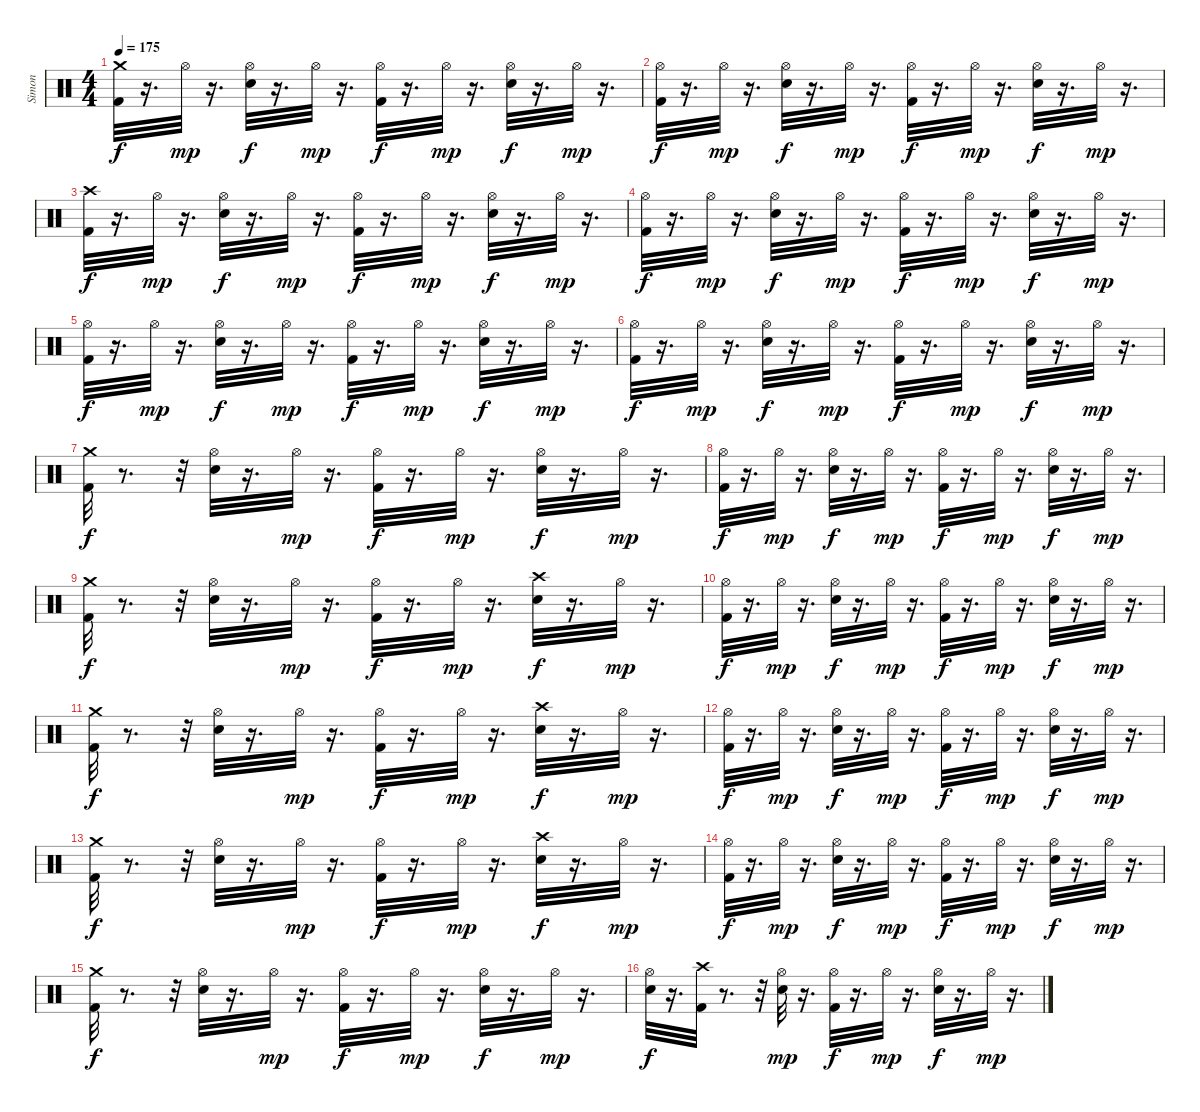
\track ("Simon" "Simon") {instrument percussion}
\staff {score}
\articulation defaults
\ts (4 4)
\tempo 175
\clef neutral
\ks c
("Crash medium (hit)" "Kick (hit) 2").32{dy f} r.16{d} "Hi-Hat (open)".32{dy mp} r.16{d} ("Hi-Hat (open)" "Electric Snare (hit)").32{dy f} r.16{d} "Hi-Hat (open)".32{dy mp} r.16{d} ("Hi-Hat (open)" "Kick (hit) 2").32{dy f} r.16{d} "Hi-Hat (open)".32{dy mp} r.16{d} ("Hi-Hat (open)" "Electric Snare (hit)").32{dy f} r.16{d} "Hi-Hat (open)".32{dy mp} r.16{d} |
("Hi-Hat (open)" "Kick (hit) 2").32{dy f} r.16{d} "Hi-Hat (open)".32{dy mp} r.16{d} ("Hi-Hat (open)" "Electric Snare (hit)").32{dy f} r.16{d} "Hi-Hat (open)".32{dy mp} r.16{d} ("Hi-Hat (open)" "Kick (hit) 2").32{dy f} r.16{d} "Hi-Hat (open)".32{dy mp} r.16{d} ("Hi-Hat (open)" "Electric Snare (hit)").32{dy f} r.16{d} "Hi-Hat (open)".32{dy mp} r.16{d} |
("Crash high (hit)" "Kick (hit) 2").32{dy f} r.16{d} "Hi-Hat (open)".32{dy mp} r.16{d} ("Hi-Hat (open)" "Electric Snare (hit)").32{dy f} r.16{d} "Hi-Hat (open)".32{dy mp} r.16{d} ("Hi-Hat (open)" "Kick (hit) 2").32{dy f} r.16{d} "Hi-Hat (open)".32{dy mp} r.16{d} ("Hi-Hat (open)" "Electric Snare (hit)").32{dy f} r.16{d} "Hi-Hat (open)".32{dy mp} r.16{d} |
("Hi-Hat (open)" "Kick (hit) 2").32{dy f} r.16{d} "Hi-Hat (open)".32{dy mp} r.16{d} ("Hi-Hat (open)" "Electric Snare (hit)").32{dy f} r.16{d} "Hi-Hat (open)".32{dy mp} r.16{d} ("Hi-Hat (open)" "Kick (hit) 2").32{dy f} r.16{d} "Hi-Hat (open)".32{dy mp} r.16{d} ("Hi-Hat (open)" "Electric Snare (hit)").32{dy f} r.16{d} "Hi-Hat (open)".32{dy mp} r.16{d} |
("Hi-Hat (open)" "Kick (hit) 2").32{dy f} r.16{d} "Hi-Hat (open)".32{dy mp} r.16{d} ("Hi-Hat (open)" "Electric Snare (hit)").32{dy f} r.16{d} "Hi-Hat (open)".32{dy mp} r.16{d} ("Hi-Hat (open)" "Kick (hit) 2").32{dy f} r.16{d} "Hi-Hat (open)".32{dy mp} r.16{d} ("Hi-Hat (open)" "Electric Snare (hit)").32{dy f} r.16{d} "Hi-Hat (open)".32{dy mp} r.16{d} |
("Hi-Hat (open)" "Kick (hit) 2").32{dy f} r.16{d} "Hi-Hat (open)".32{dy mp} r.16{d} ("Hi-Hat (open)" "Electric Snare (hit)").32{dy f} r.16{d} "Hi-Hat (open)".32{dy mp} r.16{d} ("Hi-Hat (open)" "Kick (hit) 2").32{dy f} r.16{d} "Hi-Hat (open)".32{dy mp} r.16{d} ("Hi-Hat (open)" "Electric Snare (hit)").32{dy f} r.16{d} "Hi-Hat (open)".32{dy mp} r.16{d} |
("Crash medium (hit)" "Kick (hit) 2").32{dy f} r.8{d} r.32 ("Hi-Hat (open)" "Electric Snare (hit)").32 r.16{d} "Hi-Hat (open)".32{dy mp} r.16{d} ("Hi-Hat (open)" "Kick (hit) 2").32{dy f} r.16{d} "Hi-Hat (open)".32{dy mp} r.16{d} ("Hi-Hat (open)" "Electric Snare (hit)").32{dy f} r.16{d} "Hi-Hat (open)".32{dy mp} r.16{d} |
("Hi-Hat (open)" "Kick (hit) 2").32{dy f} r.16{d} "Hi-Hat (open)".32{dy mp} r.16{d} ("Hi-Hat (open)" "Electric Snare (hit)").32{dy f} r.16{d} "Hi-Hat (open)".32{dy mp} r.16{d} ("Hi-Hat (open)" "Kick (hit) 2").32{dy f} r.16{d} "Hi-Hat (open)".32{dy mp} r.16{d} ("Hi-Hat (open)" "Electric Snare (hit)").32{dy f} r.16{d} "Hi-Hat (open)".32{dy mp} r.16{d} |
("Crash medium (hit)" "Kick (hit) 2").32{dy f} r.8{d} r.32 ("Hi-Hat (open)" "Electric Snare (hit)").32 r.16{d} "Hi-Hat (open)".32{dy mp} r.16{d} ("Hi-Hat (open)" "Kick (hit) 2").32{dy f} r.16{d} "Hi-Hat (open)".32{dy mp} r.16{d} ("Crash high (hit)" "Electric Snare (hit)").32{dy f} r.16{d} "Hi-Hat (open)".32{dy mp} r.16{d} |
("Hi-Hat (open)" "Kick (hit) 2").32{dy f} r.16{d} "Hi-Hat (open)".32{dy mp} r.16{d} ("Hi-Hat (open)" "Electric Snare (hit)").32{dy f} r.16{d} "Hi-Hat (open)".32{dy mp} r.16{d} ("Hi-Hat (open)" "Kick (hit) 2").32{dy f} r.16{d} "Hi-Hat (open)".32{dy mp} r.16{d} ("Hi-Hat (open)" "Electric Snare (hit)").32{dy f} r.16{d} "Hi-Hat (open)".32{dy mp} r.16{d} |
("Crash medium (hit)" "Kick (hit) 2").32{dy f} r.8{d} r.32 ("Hi-Hat (open)" "Electric Snare (hit)").32 r.16{d} "Hi-Hat (open)".32{dy mp} r.16{d} ("Hi-Hat (open)" "Kick (hit) 2").32{dy f} r.16{d} "Hi-Hat (open)".32{dy mp} r.16{d} ("Crash high (hit)" "Electric Snare (hit)").32{dy f} r.16{d} "Hi-Hat (open)".32{dy mp} r.16{d} |
("Hi-Hat (open)" "Kick (hit) 2").32{dy f} r.16{d} "Hi-Hat (open)".32{dy mp} r.16{d} ("Hi-Hat (open)" "Electric Snare (hit)").32{dy f} r.16{d} "Hi-Hat (open)".32{dy mp} r.16{d} ("Hi-Hat (open)" "Kick (hit) 2").32{dy f} r.16{d} "Hi-Hat (open)".32{dy mp} r.16{d} ("Hi-Hat (open)" "Electric Snare (hit)").32{dy f} r.16{d} "Hi-Hat (open)".32{dy mp} r.16{d} |
("Crash medium (hit)" "Kick (hit) 2").32{dy f} r.8{d} r.32 ("Hi-Hat (open)" "Electric Snare (hit)").32 r.16{d} "Hi-Hat (open)".32{dy mp} r.16{d} ("Hi-Hat (open)" "Kick (hit) 2").32{dy f} r.16{d} "Hi-Hat (open)".32{dy mp} r.16{d} ("Crash high (hit)" "Electric Snare (hit)").32{dy f} r.16{d} "Hi-Hat (open)".32{dy mp} r.16{d} |
("Hi-Hat (open)" "Kick (hit) 2").32{dy f} r.16{d} "Hi-Hat (open)".32{dy mp} r.16{d} ("Hi-Hat (open)" "Electric Snare (hit)").32{dy f} r.16{d} "Hi-Hat (open)".32{dy mp} r.16{d} ("Hi-Hat (open)" "Kick (hit) 2").32{dy f} r.16{d} "Hi-Hat (open)".32{dy mp} r.16{d} ("Hi-Hat (open)" "Electric Snare (hit)").32{dy f} r.16{d} "Hi-Hat (open)".32{dy mp} r.16{d} |
("Crash medium (hit)" "Kick (hit) 2").32{dy f} r.8{d} r.32 ("Hi-Hat (open)" "Electric Snare (hit)").32 r.16{d} "Hi-Hat (open)".32{dy mp} r.16{d} ("Hi-Hat (open)" "Kick (hit) 2").32{dy f} r.16{d} "Hi-Hat (open)".32{dy mp} r.16{d} ("Hi-Hat (open)" "Electric Snare (hit)").32{dy f} r.16{d} "Hi-Hat (open)".32{dy mp} r.16{d} |
("Electric Snare (hit)" "Hi-Hat (open)").32{dy f} r.16{d} ("Crash high (hit)" "Kick (hit) 2").32 r.8{d} r.32 ("Electric Snare (hit)" "Hi-Hat (open)").32{dy mp} r.16{d} ("Kick (hit) 2" "Hi-Hat (open)").32{dy f} r.16{d} "Hi-Hat (open)".32{dy mp} r.16{d} ("Hi-Hat (open)" "Electric Snare (hit)").32{dy f} r.16{d} "Hi-Hat (open)".32{dy mp} r.16{d}
